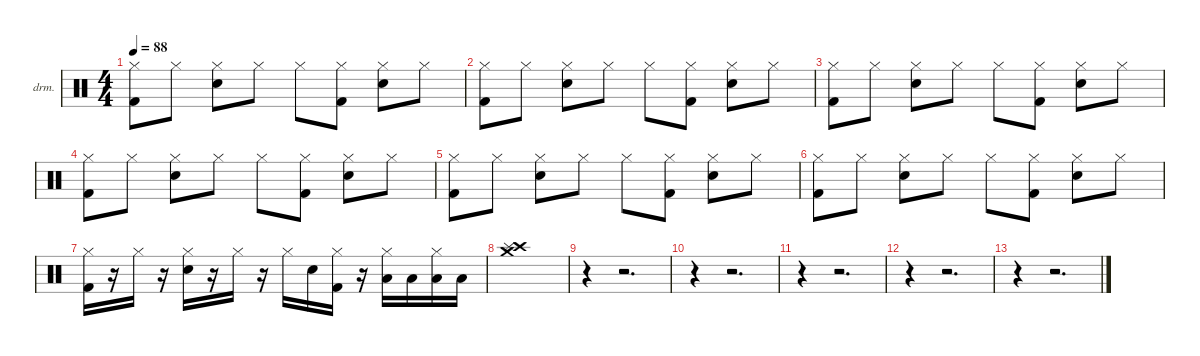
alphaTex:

\defaultSystemsLayout 4
\hideDynamics
\bracketExtendMode nobrackets
\firstSystemTrackNameOrientation horizontal
\otherSystemsTrackNameOrientation horizontal
\track ("Percussie" "drm.") {instrument percussion}
\staff {score}
\articulation defaults
\ts (4 4)
\tempo 88
\clef neutral
\ks c
("Hi-Hat (closed)" "Kick (hit) 2").8{dy f} "Hi-Hat (closed)".8 ("Hi-Hat (closed)" "Snare (hit) 2").8 "Hi-Hat (closed)".8 "Hi-Hat (closed)".8 ("Hi-Hat (closed)" "Kick (hit) 2").8 ("Hi-Hat (closed)" "Snare (hit) 2").8 "Hi-Hat (closed)".8 |
("Hi-Hat (closed)" "Kick (hit) 2").8 "Hi-Hat (closed)".8 ("Hi-Hat (closed)" "Snare (hit) 2").8 "Hi-Hat (closed)".8 "Hi-Hat (closed)".8 ("Hi-Hat (closed)" "Kick (hit) 2").8 ("Hi-Hat (closed)" "Snare (hit) 2").8 "Hi-Hat (closed)".8 |
("Hi-Hat (closed)" "Kick (hit) 2").8 "Hi-Hat (closed)".8 ("Hi-Hat (closed)" "Snare (hit) 2").8 "Hi-Hat (closed)".8 "Hi-Hat (closed)".8 ("Hi-Hat (closed)" "Kick (hit) 2").8 ("Hi-Hat (closed)" "Snare (hit) 2").8 "Hi-Hat (closed)".8 |
("Hi-Hat (closed)" "Kick (hit) 2").8 "Hi-Hat (closed)".8 ("Hi-Hat (closed)" "Snare (hit) 2").8 "Hi-Hat (closed)".8 "Hi-Hat (closed)".8 ("Hi-Hat (closed)" "Kick (hit) 2").8 ("Hi-Hat (closed)" "Snare (hit) 2").8 "Hi-Hat (closed)".8 |
("Hi-Hat (closed)" "Kick (hit) 2").8 "Hi-Hat (closed)".8 ("Hi-Hat (closed)" "Snare (hit) 2").8 "Hi-Hat (closed)".8 "Hi-Hat (closed)".8 ("Hi-Hat (closed)" "Kick (hit) 2").8 ("Hi-Hat (closed)" "Snare (hit) 2").8 "Hi-Hat (closed)".8 |
("Hi-Hat (closed)" "Kick (hit) 2").8 "Hi-Hat (closed)".8 ("Hi-Hat (closed)" "Snare (hit) 2").8 "Hi-Hat (closed)".8 "Hi-Hat (closed)".8 ("Hi-Hat (closed)" "Kick (hit) 2").8 ("Hi-Hat (closed)" "Snare (hit) 2").8 "Hi-Hat (closed)".8 |
("Hi-Hat (closed)" "Kick (hit) 2").16 r.16 "Hi-Hat (closed)".16 r.16 ("Hi-Hat (closed)" "Snare (hit) 2").16 r.16 "Hi-Hat (closed)".16 r.16 "Hi-Hat (closed)".16 "Snare (hit) 2".16 ("Hi-Hat (closed)" "Kick (hit) 2").16 r.16 ("Hi-Hat (closed)" "Low Tom (hit)").16 "Low Tom (hit)".16 ("Hi-Hat (closed)" "Low Floor Tom (hit)").16 "Low Floor Tom (hit)".16 |
("Crash high (hit)" "Crash medium (hit)" "Splash (hit)").1 |
r.4 r.2{d} |
r.4 r.2{d} |
r.4 r.2{d} |
r.4 r.2{d} |
r.4 r.2{d}
